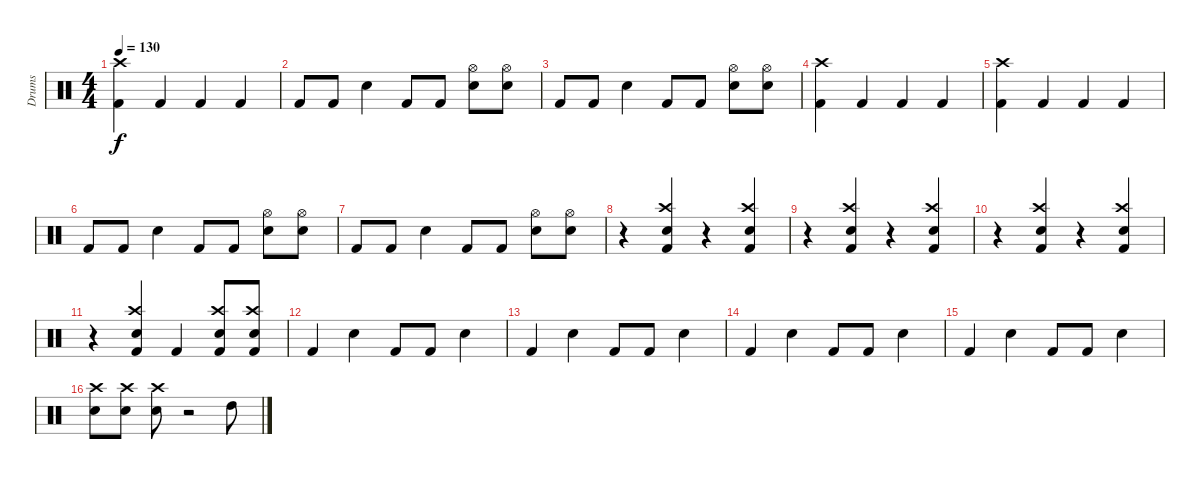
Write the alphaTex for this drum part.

\track ("Drums" "Drums") {instrument percussion}
\staff {score}
\articulation defaults
\ts (4 4)
\tempo 130
\clef neutral
\ks c
("Kick (hit) 2" "Crash high (hit)").4{dy f} "Kick (hit) 2".4 "Kick (hit) 2".4 "Kick (hit) 2".4 |
"Kick (hit) 2".8 "Kick (hit) 2".8 "Snare (hit) 2".4 "Kick (hit) 2".8 "Kick (hit) 2".8 ("Snare (hit) 2" "Hi-Hat (open)").8 ("Snare (hit) 2" "Hi-Hat (open)").8 |
"Kick (hit) 2".8 "Kick (hit) 2".8 "Snare (hit) 2".4 "Kick (hit) 2".8 "Kick (hit) 2".8 ("Snare (hit) 2" "Hi-Hat (open)").8 ("Snare (hit) 2" "Hi-Hat (open)").8 |
("Kick (hit) 2" "Crash high (hit)").4 "Kick (hit) 2".4 "Kick (hit) 2".4 "Kick (hit) 2".4 |
("Kick (hit) 2" "Crash high (hit)").4 "Kick (hit) 2".4 "Kick (hit) 2".4 "Kick (hit) 2".4 |
"Kick (hit) 2".8 "Kick (hit) 2".8 "Snare (hit) 2".4 "Kick (hit) 2".8 "Kick (hit) 2".8 ("Snare (hit) 2" "Hi-Hat (open)").8 ("Snare (hit) 2" "Hi-Hat (open)").8 |
"Kick (hit) 2".8 "Kick (hit) 2".8 "Snare (hit) 2".4 "Kick (hit) 2".8 "Kick (hit) 2".8 ("Snare (hit) 2" "Hi-Hat (open)").8 ("Snare (hit) 2" "Hi-Hat (open)").8 |
r.4 ("Kick (hit) 2" "Snare (hit) 2" "Crash high (hit)").4 r.4 ("Kick (hit) 2" "Snare (hit) 2" "Crash high (hit)").4 |
r.4 ("Kick (hit) 2" "Snare (hit) 2" "Crash high (hit)").4 r.4 ("Kick (hit) 2" "Snare (hit) 2" "Crash high (hit)").4 |
r.4 ("Kick (hit) 2" "Snare (hit) 2" "Crash high (hit)").4 r.4 ("Kick (hit) 2" "Snare (hit) 2" "Crash high (hit)").4 |
r.4 ("Kick (hit) 2" "Snare (hit) 2" "Crash high (hit)").4 "Kick (hit) 2".4 ("Kick (hit) 2" "Snare (hit) 2" "Crash high (hit)").8 ("Kick (hit) 2" "Snare (hit) 2" "Crash high (hit)").8 |
"Kick (hit) 2".4 "Snare (hit) 2".4 "Kick (hit) 2".8 "Kick (hit) 2".8 "Snare (hit) 2".4 |
"Kick (hit) 2".4 "Snare (hit) 2".4 "Kick (hit) 2".8 "Kick (hit) 2".8 "Snare (hit) 2".4 |
"Kick (hit) 2".4 "Snare (hit) 2".4 "Kick (hit) 2".8 "Kick (hit) 2".8 "Snare (hit) 2".4 |
"Kick (hit) 2".4 "Snare (hit) 2".4 "Kick (hit) 2".8 "Kick (hit) 2".8 "Snare (hit) 2".4 |
("Snare (hit) 2" "Crash high (hit)").8 ("Snare (hit) 2" "Crash high (hit)").8 ("Snare (hit) 2" "Crash high (hit)").8 r.2 "High Tom (hit)".8
